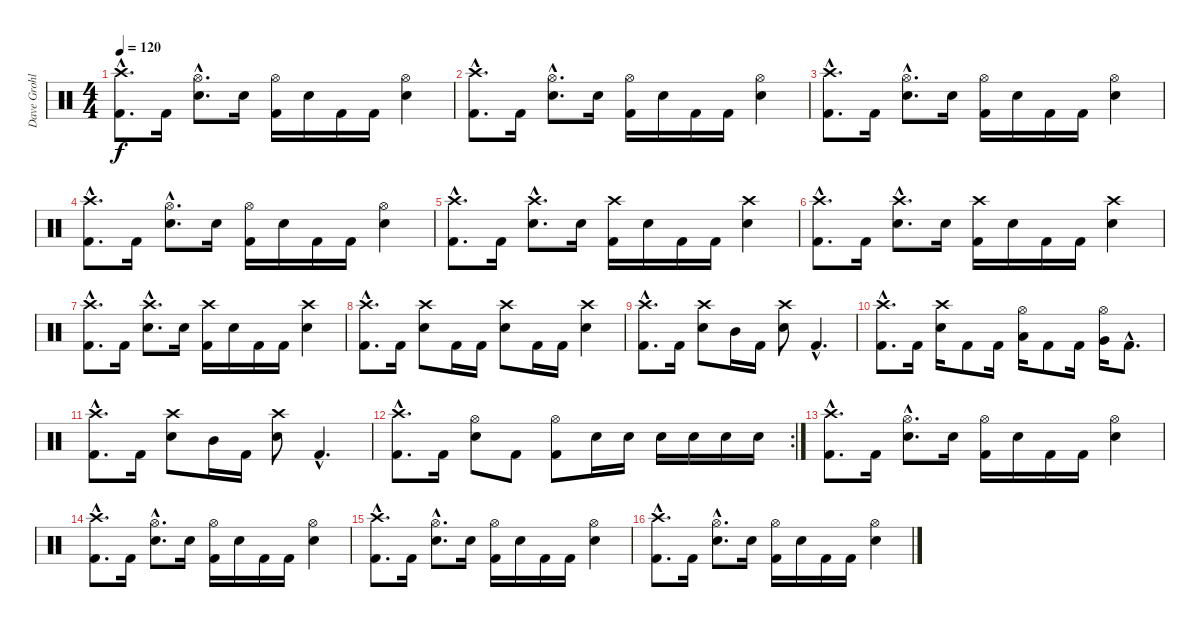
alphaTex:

\track ("Dave Grohl" "Dave Grohl") {instrument percussion}
\staff {score}
\articulation defaults
\ts (4 4)
\tempo 120
\clef neutral
\ks c
("Crash high (hit)"{hac} "Kick (hit) 2"{hac}).8{d dy f} "Kick (hit) 2".16 ("Hi-Hat (open)"{hac} "Snare (hit) 2"{hac}).8{d} "Snare (hit) 2".16 ("Hi-Hat (open)" "Kick (hit) 2").16 "Snare (hit) 2".16 "Kick (hit) 2".16 "Kick (hit) 2".16 ("Hi-Hat (open)" "Snare (hit) 2").4 |
("Crash high (hit)"{hac} "Kick (hit) 2"{hac}).8{d} "Kick (hit) 2".16 ("Hi-Hat (open)"{hac} "Snare (hit) 2"{hac}).8{d} "Snare (hit) 2".16 ("Hi-Hat (open)" "Kick (hit) 2").16 "Snare (hit) 2".16 "Kick (hit) 2".16 "Kick (hit) 2".16 ("Hi-Hat (open)" "Snare (hit) 2").4 |
("Crash high (hit)"{hac} "Kick (hit) 2"{hac}).8{d} "Kick (hit) 2".16 ("Hi-Hat (open)"{hac} "Snare (hit) 2"{hac}).8{d} "Snare (hit) 2".16 ("Hi-Hat (open)" "Kick (hit) 2").16 "Snare (hit) 2".16 "Kick (hit) 2".16 "Kick (hit) 2".16 ("Hi-Hat (open)" "Snare (hit) 2").4 |
("Crash high (hit)"{hac} "Kick (hit) 2"{hac}).8{d} "Kick (hit) 2".16 ("Hi-Hat (open)"{hac} "Snare (hit) 2"{hac}).8{d} "Snare (hit) 2".16 ("Hi-Hat (open)" "Kick (hit) 2").16 "Snare (hit) 2".16 "Kick (hit) 2".16 "Kick (hit) 2".16 ("Hi-Hat (open)" "Snare (hit) 2").4 |
("Crash high (hit)"{hac} "Kick (hit) 2"{hac}).8{d} "Kick (hit) 2".16 ("Crash high (hit)"{hac} "Snare (hit) 2"{hac}).8{d} "Snare (hit) 2".16 ("Crash high (hit)" "Kick (hit) 2").16 "Snare (hit) 2".16 "Kick (hit) 2".16 "Kick (hit) 2".16 ("Crash high (hit)" "Snare (hit) 2").4 |
("Crash high (hit)"{hac} "Kick (hit) 2"{hac}).8{d} "Kick (hit) 2".16 ("Crash high (hit)"{hac} "Snare (hit) 2"{hac}).8{d} "Snare (hit) 2".16 ("Crash high (hit)" "Kick (hit) 2").16 "Snare (hit) 2".16 "Kick (hit) 2".16 "Kick (hit) 2".16 ("Crash high (hit)" "Snare (hit) 2").4 |
("Crash high (hit)"{hac} "Kick (hit) 2"{hac}).8{d} "Kick (hit) 2".16 ("Crash high (hit)"{hac} "Snare (hit) 2"{hac}).8{d} "Snare (hit) 2".16 ("Crash high (hit)" "Kick (hit) 2").16 "Snare (hit) 2".16 "Kick (hit) 2".16 "Kick (hit) 2".16 ("Crash high (hit)" "Snare (hit) 2").4 |
("Crash high (hit)"{hac} "Kick (hit) 2"{hac}).8{d} "Kick (hit) 2".16 ("Crash high (hit)" "Snare (hit) 2").8 "Kick (hit) 2".16 "Kick (hit) 2".16 ("Crash high (hit)" "Snare (hit) 2").8 "Kick (hit) 2".16 "Kick (hit) 2".16 ("Crash high (hit)" "Snare (hit) 2").4 |
("Crash high (hit)"{hac} "Kick (hit) 2"{hac}).8{d} "Kick (hit) 2".16 ("Crash high (hit)" "Snare (hit) 2").8 "Mid Tom (hit)".16 "Kick (hit) 2".16 ("Crash high (hit)" "Snare (hit) 2").8 "Kick (hit) 2"{hac}.4{d} |
("Crash high (hit)"{hac} "Kick (hit) 2"{hac}).8{d} "Kick (hit) 2".16 ("Crash high (hit)" "Snare (hit) 2").16 "Kick (hit) 2".8 "Kick (hit) 2".16 ("Hi-Hat (open)" "Low Tom (hit)").16 "Kick (hit) 2".8 "Kick (hit) 2".16 ("Hi-Hat (open)" "Very Low Tom (hit)").16 "Kick (hit) 2"{hac}.8{d} |
("Crash high (hit)"{hac} "Kick (hit) 2"{hac}).8{d} "Kick (hit) 2".16 ("Crash high (hit)" "Snare (hit) 2").8 "Mid Tom (hit)".16 "Kick (hit) 2".16 ("Crash high (hit)" "Snare (hit) 2").8 "Kick (hit) 2"{hac}.4{d} |
\rc 2
("Crash high (hit)"{hac} "Kick (hit) 2"{hac}).8{d} "Kick (hit) 2".16 ("Hi-Hat (open)" "Snare (hit) 2").8 "Kick (hit) 2".8 ("Hi-Hat (open)" "Kick (hit) 2").8 "Snare (hit) 2".16 "Snare (hit) 2".16 "Snare (hit) 2".16 "Snare (hit) 2".16 "Snare (hit) 2".16 "Snare (hit) 2".16 |
("Crash high (hit)"{hac} "Kick (hit) 2"{hac}).8{d} "Kick (hit) 2".16 ("Hi-Hat (open)"{hac} "Snare (hit) 2"{hac}).8{d} "Snare (hit) 2".16 ("Hi-Hat (open)" "Kick (hit) 2").16 "Snare (hit) 2".16 "Kick (hit) 2".16 "Kick (hit) 2".16 ("Hi-Hat (open)" "Snare (hit) 2").4 |
("Crash high (hit)"{hac} "Kick (hit) 2"{hac}).8{d} "Kick (hit) 2".16 ("Hi-Hat (open)"{hac} "Snare (hit) 2"{hac}).8{d} "Snare (hit) 2".16 ("Hi-Hat (open)" "Kick (hit) 2").16 "Snare (hit) 2".16 "Kick (hit) 2".16 "Kick (hit) 2".16 ("Hi-Hat (open)" "Snare (hit) 2").4 |
("Crash high (hit)"{hac} "Kick (hit) 2"{hac}).8{d} "Kick (hit) 2".16 ("Hi-Hat (open)"{hac} "Snare (hit) 2"{hac}).8{d} "Snare (hit) 2".16 ("Hi-Hat (open)" "Kick (hit) 2").16 "Snare (hit) 2".16 "Kick (hit) 2".16 "Kick (hit) 2".16 ("Hi-Hat (open)" "Snare (hit) 2").4 |
("Crash high (hit)"{hac} "Kick (hit) 2"{hac}).8{d} "Kick (hit) 2".16 ("Hi-Hat (open)"{hac} "Snare (hit) 2"{hac}).8{d} "Snare (hit) 2".16 ("Hi-Hat (open)" "Kick (hit) 2").16 "Snare (hit) 2".16 "Kick (hit) 2".16 "Kick (hit) 2".16 ("Hi-Hat (open)" "Snare (hit) 2").4
